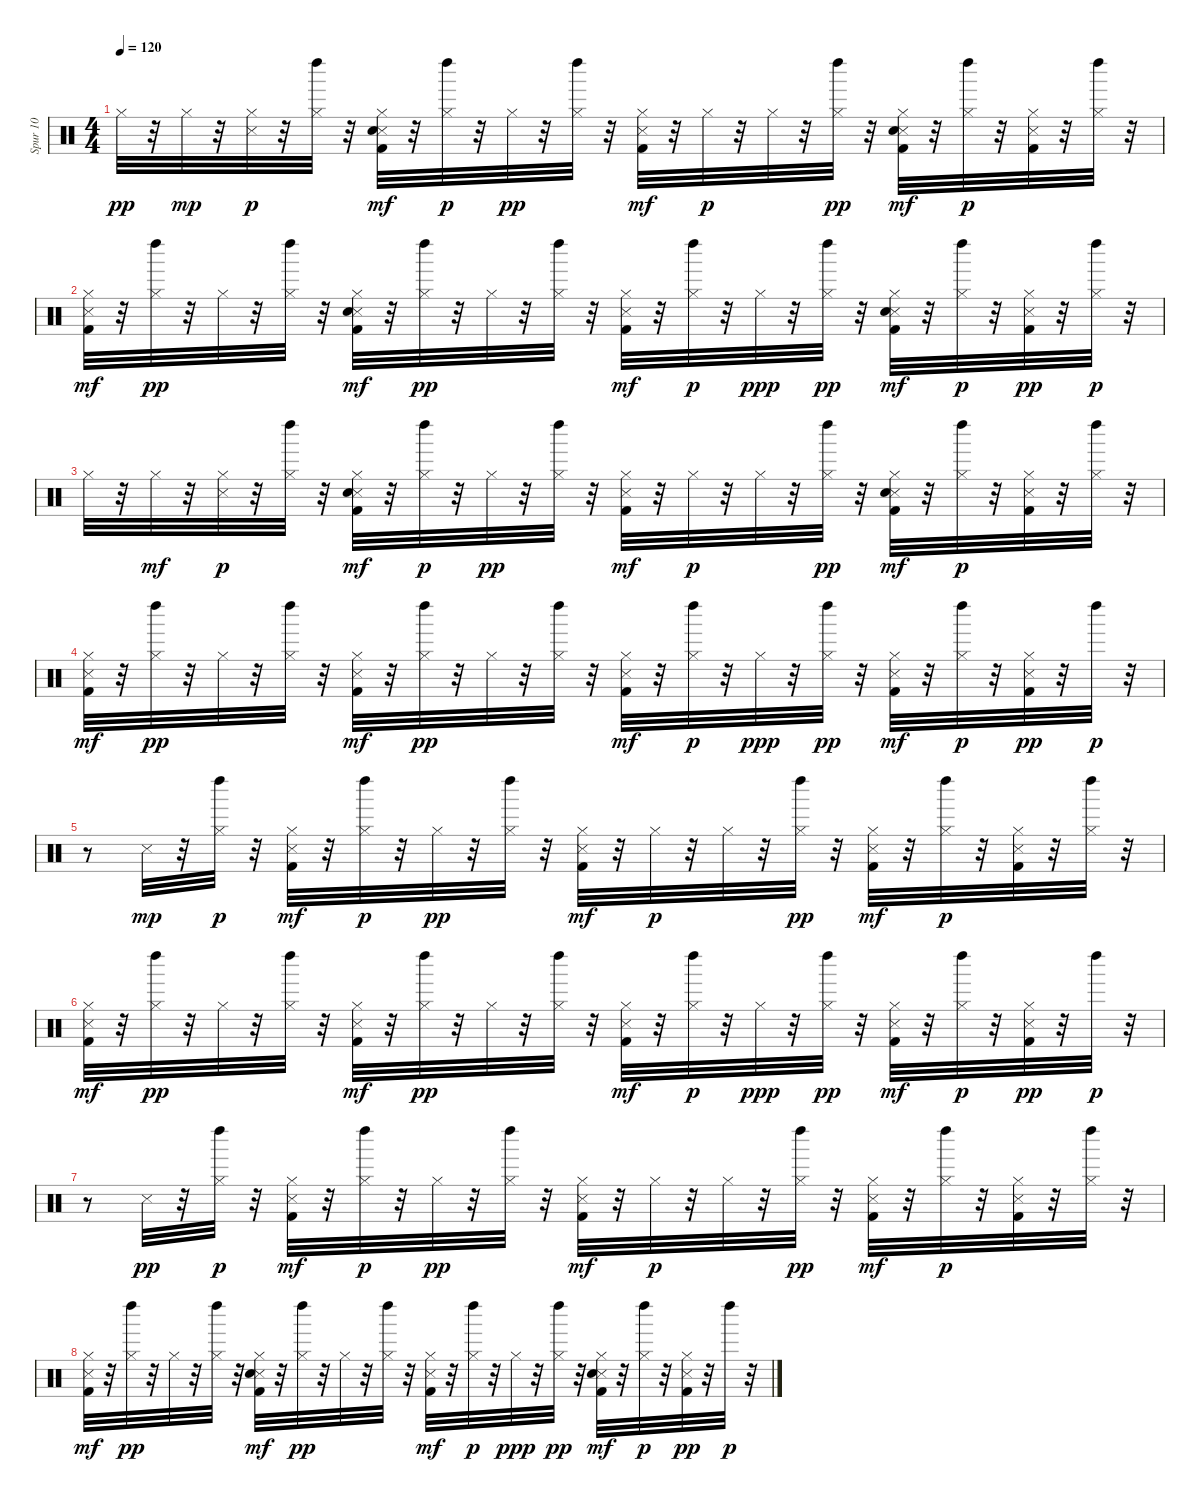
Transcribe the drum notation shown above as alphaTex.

\track ("Spur 10" "Spur 10") {instrument percussion}
\staff {score}
\articulation defaults
\ts (4 4)
\tempo 120
\clef neutral
\ks c "Hi-Hat (closed)".32{dy pp}
r.32 "Hi-Hat (closed)".32{dy mp} r.32 ("Snare (side stick) 3" "Hi-Hat (closed)").32{dy p} r.32 ("Hi-Hat (closed)" "Left Maraca (hit)").32 r.32 ("Kick (hit) 2" "Snare (side stick) 3" "Hand Clap (hit)" "Hi-Hat (closed)").32{dy mf} r.32 ("Hi-Hat (closed)" "Left Maraca (hit)").32{dy p} r.32 "Hi-Hat (closed)".32{dy pp} r.32 ("Hi-Hat (closed)" "Left Maraca (hit)").32 r.32 ("Kick (hit) 2" "Snare (side stick) 3" "Hi-Hat (closed)").32{dy mf} r.32 "Hi-Hat (closed)".32{dy p} r.32 "Hi-Hat (closed)".32 r.32 ("Hi-Hat (closed)" "Left Maraca (hit)").32{dy pp} r.32 ("Kick (hit) 2" "Snare (side stick) 3" "Hand Clap (hit)" "Hi-Hat (closed)").32{dy mf} r.32 ("Hi-Hat (closed)" "Left Maraca (hit)").32{dy p} r.32 ("Kick (hit) 2" "Snare (side stick) 3" "Hi-Hat (closed)").32 r.32 ("Hi-Hat (closed)" "Left Maraca (hit)").32 r.32 |
("Kick (hit) 2" "Snare (side stick) 3" "Hi-Hat (closed)").32{dy mf} r.32 ("Hi-Hat (closed)" "Left Maraca (hit)").32{dy pp} r.32 "Hi-Hat (closed)".32 r.32 ("Hi-Hat (closed)" "Left Maraca (hit)").32 r.32 ("Kick (hit) 2" "Snare (side stick) 3" "Hand Clap (hit)" "Hi-Hat (closed)").32{dy mf} r.32 ("Hi-Hat (closed)" "Left Maraca (hit)").32{dy pp} r.32 "Hi-Hat (closed)".32 r.32 ("Hi-Hat (closed)" "Left Maraca (hit)").32 r.32 ("Kick (hit) 2" "Snare (side stick) 3" "Hi-Hat (closed)").32{dy mf} r.32 ("Hi-Hat (closed)" "Left Maraca (hit)").32{dy p} r.32 "Hi-Hat (closed)".32{dy ppp} r.32 ("Hi-Hat (closed)" "Left Maraca (hit)").32{dy pp} r.32 ("Kick (hit) 2" "Snare (side stick) 3" "Hand Clap (hit)" "Hi-Hat (closed)").32{dy mf} r.32 ("Hi-Hat (closed)" "Left Maraca (hit)").32{dy p} r.32 ("Kick (hit) 2" "Snare (side stick) 3" "Hi-Hat (closed)").32{dy pp} r.32 ("Hi-Hat (closed)" "Left Maraca (hit)").32{dy p} r.32 |
"Hi-Hat (closed)".32 r.32 "Hi-Hat (closed)".32{dy mf} r.32 ("Snare (side stick) 3" "Hi-Hat (closed)").32{dy p} r.32 ("Hi-Hat (closed)" "Left Maraca (hit)").32 r.32 ("Kick (hit) 2" "Snare (side stick) 3" "Hand Clap (hit)" "Hi-Hat (closed)").32{dy mf} r.32 ("Hi-Hat (closed)" "Left Maraca (hit)").32{dy p} r.32 "Hi-Hat (closed)".32{dy pp} r.32 ("Hi-Hat (closed)" "Left Maraca (hit)").32 r.32 ("Kick (hit) 2" "Snare (side stick) 3" "Hi-Hat (closed)").32{dy mf} r.32 "Hi-Hat (closed)".32{dy p} r.32 "Hi-Hat (closed)".32 r.32 ("Hi-Hat (closed)" "Left Maraca (hit)").32{dy pp} r.32 ("Kick (hit) 2" "Snare (side stick) 3" "Hand Clap (hit)" "Hi-Hat (closed)").32{dy mf} r.32 ("Hi-Hat (closed)" "Left Maraca (hit)").32{dy p} r.32 ("Kick (hit) 2" "Snare (side stick) 3" "Hi-Hat (closed)").32 r.32 ("Hi-Hat (closed)" "Left Maraca (hit)").32 r.32 |
("Kick (hit) 2" "Snare (side stick) 3" "Hi-Hat (closed)").32{dy mf} r.32 ("Hi-Hat (closed)" "Left Maraca (hit)").32{dy pp} r.32 "Hi-Hat (closed)".32 r.32 ("Hi-Hat (closed)" "Left Maraca (hit)").32 r.32 ("Kick (hit) 2" "Snare (side stick) 3" "Hi-Hat (closed)").32{dy mf} r.32 ("Hi-Hat (closed)" "Left Maraca (hit)").32{dy pp} r.32 "Hi-Hat (closed)".32 r.32 ("Hi-Hat (closed)" "Left Maraca (hit)").32 r.32 ("Kick (hit) 2" "Snare (side stick) 3" "Hi-Hat (closed)").32{dy mf} r.32 ("Hi-Hat (closed)" "Left Maraca (hit)").32{dy p} r.32 "Hi-Hat (closed)".32{dy ppp} r.32 ("Hi-Hat (closed)" "Left Maraca (hit)").32{dy pp} r.32 ("Kick (hit) 2" "Snare (side stick) 3" "Hi-Hat (closed)").32{dy mf} r.32 ("Hi-Hat (closed)" "Left Maraca (hit)").32{dy p} r.32 ("Kick (hit) 2" "Snare (side stick) 3" "Hi-Hat (closed)").32{dy pp} r.32 "Left Maraca (hit)".32{dy p} r.32 |
r.8 "Snare (side stick) 3".32{dy mp} r.32 ("Hi-Hat (closed)" "Left Maraca (hit)").32{dy p} r.32 ("Kick (hit) 2" "Snare (side stick) 3" "Hi-Hat (closed)").32{dy mf} r.32 ("Hi-Hat (closed)" "Left Maraca (hit)").32{dy p} r.32 "Hi-Hat (closed)".32{dy pp} r.32 ("Hi-Hat (closed)" "Left Maraca (hit)").32 r.32 ("Kick (hit) 2" "Snare (side stick) 3" "Hi-Hat (closed)").32{dy mf} r.32 "Hi-Hat (closed)".32{dy p} r.32 "Hi-Hat (closed)".32 r.32 ("Hi-Hat (closed)" "Left Maraca (hit)").32{dy pp} r.32 ("Kick (hit) 2" "Snare (side stick) 3" "Hi-Hat (closed)").32{dy mf} r.32 ("Hi-Hat (closed)" "Left Maraca (hit)").32{dy p} r.32 ("Kick (hit) 2" "Snare (side stick) 3" "Hi-Hat (closed)").32 r.32 ("Hi-Hat (closed)" "Left Maraca (hit)").32 r.32 |
("Kick (hit) 2" "Snare (side stick) 3" "Hi-Hat (closed)").32{dy mf} r.32 ("Hi-Hat (closed)" "Left Maraca (hit)").32{dy pp} r.32 "Hi-Hat (closed)".32 r.32 ("Hi-Hat (closed)" "Left Maraca (hit)").32 r.32 ("Kick (hit) 2" "Snare (side stick) 3" "Hi-Hat (closed)").32{dy mf} r.32 ("Hi-Hat (closed)" "Left Maraca (hit)").32{dy pp} r.32 "Hi-Hat (closed)".32 r.32 ("Hi-Hat (closed)" "Left Maraca (hit)").32 r.32 ("Kick (hit) 2" "Snare (side stick) 3" "Hi-Hat (closed)").32{dy mf} r.32 ("Hi-Hat (closed)" "Left Maraca (hit)").32{dy p} r.32 "Hi-Hat (closed)".32{dy ppp} r.32 ("Hi-Hat (closed)" "Left Maraca (hit)").32{dy pp} r.32 ("Kick (hit) 2" "Snare (side stick) 3" "Hi-Hat (closed)").32{dy mf} r.32 ("Hi-Hat (closed)" "Left Maraca (hit)").32{dy p} r.32 ("Kick (hit) 2" "Snare (side stick) 3" "Hi-Hat (closed)").32{dy pp} r.32 "Left Maraca (hit)".32{dy p} r.32 |
r.8 "Snare (side stick) 3".32{dy pp} r.32 ("Hi-Hat (closed)" "Left Maraca (hit)").32{dy p} r.32 ("Kick (hit) 2" "Snare (side stick) 3" "Hi-Hat (closed)").32{dy mf} r.32 ("Hi-Hat (closed)" "Left Maraca (hit)").32{dy p} r.32 "Hi-Hat (closed)".32{dy pp} r.32 ("Hi-Hat (closed)" "Left Maraca (hit)").32 r.32 ("Kick (hit) 2" "Snare (side stick) 3" "Hi-Hat (closed)").32{dy mf} r.32 "Hi-Hat (closed)".32{dy p} r.32 "Hi-Hat (closed)".32 r.32 ("Hi-Hat (closed)" "Left Maraca (hit)").32{dy pp} r.32 ("Kick (hit) 2" "Snare (side stick) 3" "Hi-Hat (closed)").32{dy mf} r.32 ("Hi-Hat (closed)" "Left Maraca (hit)").32{dy p} r.32 ("Kick (hit) 2" "Snare (side stick) 3" "Hi-Hat (closed)").32 r.32 ("Hi-Hat (closed)" "Left Maraca (hit)").32 r.32 |
("Kick (hit) 2" "Snare (side stick) 3" "Hi-Hat (closed)").32{dy mf} r.32 ("Hi-Hat (closed)" "Left Maraca (hit)").32{dy pp} r.32 "Hi-Hat (closed)".32 r.32 ("Hi-Hat (closed)" "Left Maraca (hit)").32 r.32 ("Kick (hit) 2" "Snare (side stick) 3" "Hand Clap (hit)" "Hi-Hat (closed)").32{dy mf} r.32 ("Hi-Hat (closed)" "Left Maraca (hit)").32{dy pp} r.32 "Hi-Hat (closed)".32 r.32 ("Hi-Hat (closed)" "Left Maraca (hit)").32 r.32 ("Kick (hit) 2" "Snare (side stick) 3" "Hi-Hat (closed)").32{dy mf} r.32 ("Hi-Hat (closed)" "Left Maraca (hit)").32{dy p} r.32 "Hi-Hat (closed)".32{dy ppp} r.32 ("Hi-Hat (closed)" "Left Maraca (hit)").32{dy pp} r.32 ("Kick (hit) 2" "Snare (side stick) 3" "Hand Clap (hit)" "Hi-Hat (closed)").32{dy mf} r.32 ("Hi-Hat (closed)" "Left Maraca (hit)").32{dy p} r.32 ("Kick (hit) 2" "Snare (side stick) 3" "Hi-Hat (closed)").32{dy pp} r.32 "Left Maraca (hit)".32{dy p} r.32
